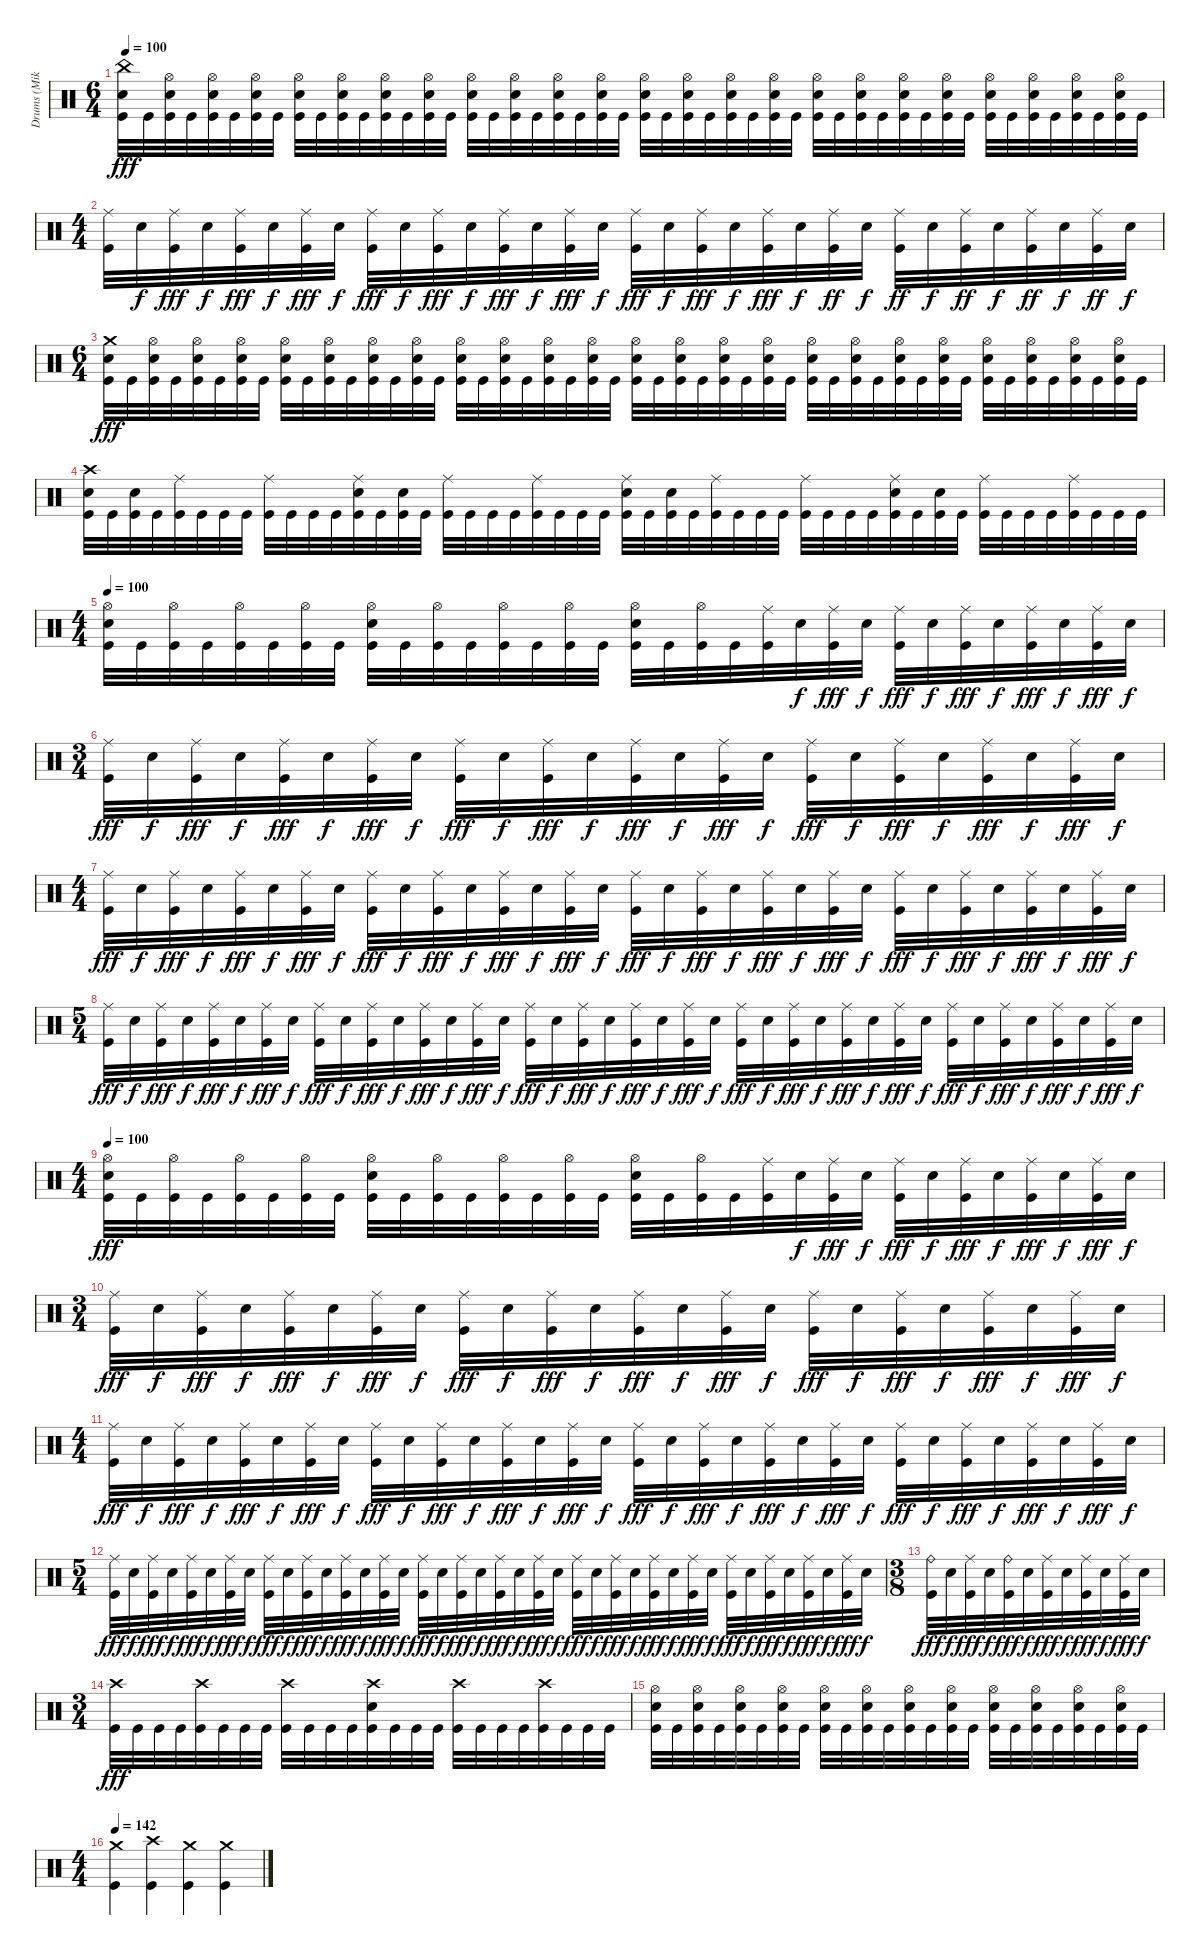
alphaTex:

\track ("Drums (Mike)" "Drums (Mik") {instrument percussion}
\staff {score}
\articulation defaults
\ts (6 4)
\tempo 100
\clef neutral
\ks c
("China (hit)" "Electric Snare (hit)" "Kick (hit)").32{dy fff} "Kick (hit)".32 ("Hi-Hat (open)" "Electric Snare (hit)" "Kick (hit)").32 "Kick (hit)".32 ("Hi-Hat (open)" "Electric Snare (hit)" "Kick (hit)").32 "Kick (hit)".32 ("Hi-Hat (open)" "Electric Snare (hit)" "Kick (hit)").32 "Kick (hit)".32 ("Hi-Hat (open)" "Electric Snare (hit)" "Kick (hit)").32 "Kick (hit)".32 ("Hi-Hat (open)" "Electric Snare (hit)" "Kick (hit)").32 "Kick (hit)".32 ("Hi-Hat (open)" "Electric Snare (hit)" "Kick (hit)").32 "Kick (hit)".32 ("Hi-Hat (open)" "Electric Snare (hit)" "Kick (hit)").32 "Kick (hit)".32 ("Hi-Hat (open)" "Electric Snare (hit)" "Kick (hit)").32 "Kick (hit)".32 ("Hi-Hat (open)" "Electric Snare (hit)" "Kick (hit)").32 "Kick (hit)".32 ("Hi-Hat (open)" "Electric Snare (hit)" "Kick (hit)").32 "Kick (hit)".32 ("Hi-Hat (open)" "Electric Snare (hit)" "Kick (hit)").32 "Kick (hit)".32 ("Hi-Hat (open)" "Electric Snare (hit)" "Kick (hit)").32 "Kick (hit)".32 ("Hi-Hat (open)" "Electric Snare (hit)" "Kick (hit)").32 "Kick (hit)".32 ("Hi-Hat (open)" "Electric Snare (hit)" "Kick (hit)").32 "Kick (hit)".32 ("Hi-Hat (open)" "Electric Snare (hit)" "Kick (hit)").32 "Kick (hit)".32 ("Hi-Hat (open)" "Electric Snare (hit)" "Kick (hit)").32 "Kick (hit)".32 ("Hi-Hat (open)" "Electric Snare (hit)" "Kick (hit)").32 "Kick (hit)".32 ("Hi-Hat (open)" "Electric Snare (hit)" "Kick (hit)").32 "Kick (hit)".32 ("Hi-Hat (open)" "Electric Snare (hit)" "Kick (hit)").32 "Kick (hit)".32 ("Hi-Hat (open)" "Electric Snare (hit)" "Kick (hit)").32 "Kick (hit)".32 ("Hi-Hat (open)" "Electric Snare (hit)" "Kick (hit)").32 "Kick (hit)".32 ("Hi-Hat (open)" "Electric Snare (hit)" "Kick (hit)").32 "Kick (hit)".32 ("Hi-Hat (open)" "Electric Snare (hit)" "Kick (hit)").32 "Kick (hit)".32 |
\ts (4 4)
("Ride (middle)" "Kick (hit)").32 "Electric Snare (hit)".32{dy f} ("Ride (middle)" "Kick (hit)").32{dy fff} "Electric Snare (hit)".32{dy f} ("Ride (middle)" "Kick (hit)").32{dy fff} "Electric Snare (hit)".32{dy f} ("Ride (middle)" "Kick (hit)").32{dy fff} "Electric Snare (hit)".32{dy f} ("Ride (middle)" "Kick (hit)").32{dy fff} "Electric Snare (hit)".32{dy f} ("Ride (middle)" "Kick (hit)").32{dy fff} "Electric Snare (hit)".32{dy f} ("Ride (middle)" "Kick (hit)").32{dy fff} "Electric Snare (hit)".32{dy f} ("Ride (middle)" "Kick (hit)").32{dy fff} "Electric Snare (hit)".32{dy f} ("Ride (middle)" "Kick (hit)").32{dy fff} "Electric Snare (hit)".32{dy f} ("Ride (middle)" "Kick (hit)").32{dy fff} "Electric Snare (hit)".32{dy f} ("Ride (middle)" "Kick (hit)").32{dy fff} "Electric Snare (hit)".32{dy f} ("Ride (middle)" "Kick (hit)").32{dy ff} "Electric Snare (hit)".32{dy f} ("Ride (middle)" "Kick (hit)").32{dy ff} "Electric Snare (hit)".32{dy f} ("Ride (middle)" "Kick (hit)").32{dy ff} "Electric Snare (hit)".32{dy f} ("Ride (middle)" "Kick (hit)").32{dy ff} "Electric Snare (hit)".32{dy f} ("Ride (middle)" "Kick (hit)").32{dy ff} "Electric Snare (hit)".32{dy f} |
\ts (6 4)
("Crash medium (hit)" "Electric Snare (hit)" "Kick (hit)").32{dy fff} "Kick (hit)".32 ("Hi-Hat (open)" "Electric Snare (hit)" "Kick (hit)").32 "Kick (hit)".32 ("Hi-Hat (open)" "Electric Snare (hit)" "Kick (hit)").32 "Kick (hit)".32 ("Hi-Hat (open)" "Electric Snare (hit)" "Kick (hit)").32 "Kick (hit)".32 ("Hi-Hat (open)" "Electric Snare (hit)" "Kick (hit)").32 "Kick (hit)".32 ("Hi-Hat (open)" "Electric Snare (hit)" "Kick (hit)").32 "Kick (hit)".32 ("Hi-Hat (open)" "Electric Snare (hit)" "Kick (hit)").32 "Kick (hit)".32 ("Hi-Hat (open)" "Electric Snare (hit)" "Kick (hit)").32 "Kick (hit)".32 ("Hi-Hat (open)" "Electric Snare (hit)" "Kick (hit)").32 "Kick (hit)".32 ("Hi-Hat (open)" "Electric Snare (hit)" "Kick (hit)").32 "Kick (hit)".32 ("Hi-Hat (open)" "Electric Snare (hit)" "Kick (hit)").32 "Kick (hit)".32 ("Hi-Hat (open)" "Electric Snare (hit)" "Kick (hit)").32 "Kick (hit)".32 ("Hi-Hat (open)" "Electric Snare (hit)" "Kick (hit)").32 "Kick (hit)".32 ("Hi-Hat (open)" "Electric Snare (hit)" "Kick (hit)").32 "Kick (hit)".32 ("Hi-Hat (open)" "Electric Snare (hit)" "Kick (hit)").32 "Kick (hit)".32 ("Hi-Hat (open)" "Electric Snare (hit)" "Kick (hit)").32 "Kick (hit)".32 ("Hi-Hat (open)" "Electric Snare (hit)" "Kick (hit)").32 "Kick (hit)".32 ("Hi-Hat (open)" "Electric Snare (hit)" "Kick (hit)").32 "Kick (hit)".32 ("Hi-Hat (open)" "Electric Snare (hit)" "Kick (hit)").32 "Kick (hit)".32 ("Hi-Hat (open)" "Electric Snare (hit)" "Kick (hit)").32 "Kick (hit)".32 ("Hi-Hat (open)" "Electric Snare (hit)" "Kick (hit)").32 "Kick (hit)".32 ("Hi-Hat (open)" "Electric Snare (hit)" "Kick (hit)").32 "Kick (hit)".32 ("Hi-Hat (open)" "Electric Snare (hit)" "Kick (hit)").32 "Kick (hit)".32 ("Hi-Hat (open)" "Electric Snare (hit)" "Kick (hit)").32 "Kick (hit)".32 |
("Crash high (hit)" "Electric Snare (hit)" "Kick (hit)").32 "Kick (hit)".32 ("Electric Snare (hit)" "Kick (hit)").32 "Kick (hit)".32 ("Ride (middle)" "Kick (hit)").32 "Kick (hit)".32 "Kick (hit)".32 "Kick (hit)".32 ("Ride (middle)" "Kick (hit)").32 "Kick (hit)".32 "Kick (hit)".32 "Kick (hit)".32 ("Ride (middle)" "Electric Snare (hit)" "Kick (hit)").32 "Kick (hit)".32 ("Electric Snare (hit)" "Kick (hit)").32 "Kick (hit)".32 ("Ride (middle)" "Kick (hit)").32 "Kick (hit)".32 "Kick (hit)".32 "Kick (hit)".32 ("Ride (middle)" "Kick (hit)").32 "Kick (hit)".32 "Kick (hit)".32 "Kick (hit)".32 ("Ride (middle)" "Electric Snare (hit)" "Kick (hit)").32 "Kick (hit)".32 ("Electric Snare (hit)" "Kick (hit)").32 "Kick (hit)".32 ("Ride (middle)" "Kick (hit)").32 "Kick (hit)".32 "Kick (hit)".32 "Kick (hit)".32 ("Ride (middle)" "Kick (hit)").32 "Kick (hit)".32 "Kick (hit)".32 "Kick (hit)".32 ("Ride (middle)" "Electric Snare (hit)" "Kick (hit)").32 "Kick (hit)".32 ("Electric Snare (hit)" "Kick (hit)").32 "Kick (hit)".32 ("Ride (middle)" "Kick (hit)").32 "Kick (hit)".32 "Kick (hit)".32 "Kick (hit)".32 ("Ride (middle)" "Kick (hit)").32 "Kick (hit)".32 "Kick (hit)".32 "Kick (hit)".32 |
\ts (4 4)
\tempo 100
("Hi-Hat (open)" "Electric Snare (hit)" "Kick (hit)").32 "Kick (hit)".32 ("Hi-Hat (open)" "Kick (hit)").32 "Kick (hit)".32 ("Hi-Hat (open)" "Kick (hit)").32 "Kick (hit)".32 ("Hi-Hat (open)" "Kick (hit)").32 "Kick (hit)".32 ("Hi-Hat (open)" "Electric Snare (hit)" "Kick (hit)").32 "Kick (hit)".32 ("Hi-Hat (open)" "Kick (hit)").32 "Kick (hit)".32 ("Hi-Hat (open)" "Kick (hit)").32 "Kick (hit)".32 ("Hi-Hat (open)" "Kick (hit)").32 "Kick (hit)".32 ("Hi-Hat (open)" "Electric Snare (hit)" "Kick (hit)").32 "Kick (hit)".32 ("Hi-Hat (open)" "Kick (hit)").32 "Kick (hit)".32 ("Ride (middle)" "Kick (hit)").32 "Electric Snare (hit)".32{dy f} ("Ride (middle)" "Kick (hit)").32{dy fff} "Electric Snare (hit)".32{dy f} ("Ride (middle)" "Kick (hit)").32{dy fff} "Electric Snare (hit)".32{dy f} ("Ride (middle)" "Kick (hit)").32{dy fff} "Electric Snare (hit)".32{dy f} ("Ride (middle)" "Kick (hit)").32{dy fff} "Electric Snare (hit)".32{dy f} ("Ride (middle)" "Kick (hit)").32{dy fff} "Electric Snare (hit)".32{dy f} |
\ts (3 4)
("Ride (middle)" "Kick (hit)").32{dy fff} "Electric Snare (hit)".32{dy f} ("Ride (middle)" "Kick (hit)").32{dy fff} "Electric Snare (hit)".32{dy f} ("Ride (middle)" "Kick (hit)").32{dy fff} "Electric Snare (hit)".32{dy f} ("Ride (middle)" "Kick (hit)").32{dy fff} "Electric Snare (hit)".32{dy f} ("Ride (middle)" "Kick (hit)").32{dy fff} "Electric Snare (hit)".32{dy f} ("Ride (middle)" "Kick (hit)").32{dy fff} "Electric Snare (hit)".32{dy f} ("Ride (middle)" "Kick (hit)").32{dy fff} "Electric Snare (hit)".32{dy f} ("Ride (middle)" "Kick (hit)").32{dy fff} "Electric Snare (hit)".32{dy f} ("Ride (middle)" "Kick (hit)").32{dy fff} "Electric Snare (hit)".32{dy f} ("Ride (middle)" "Kick (hit)").32{dy fff} "Electric Snare (hit)".32{dy f} ("Ride (middle)" "Kick (hit)").32{dy fff} "Electric Snare (hit)".32{dy f} ("Ride (middle)" "Kick (hit)").32{dy fff} "Electric Snare (hit)".32{dy f} |
\ts (4 4)
("Ride (middle)" "Kick (hit)").32{dy fff} "Electric Snare (hit)".32{dy f} ("Ride (middle)" "Kick (hit)").32{dy fff} "Electric Snare (hit)".32{dy f} ("Ride (middle)" "Kick (hit)").32{dy fff} "Electric Snare (hit)".32{dy f} ("Ride (middle)" "Kick (hit)").32{dy fff} "Electric Snare (hit)".32{dy f} ("Ride (middle)" "Kick (hit)").32{dy fff} "Electric Snare (hit)".32{dy f} ("Ride (middle)" "Kick (hit)").32{dy fff} "Electric Snare (hit)".32{dy f} ("Ride (middle)" "Kick (hit)").32{dy fff} "Electric Snare (hit)".32{dy f} ("Ride (middle)" "Kick (hit)").32{dy fff} "Electric Snare (hit)".32{dy f} ("Ride (middle)" "Kick (hit)").32{dy fff} "Electric Snare (hit)".32{dy f} ("Ride (middle)" "Kick (hit)").32{dy fff} "Electric Snare (hit)".32{dy f} ("Ride (middle)" "Kick (hit)").32{dy fff} "Electric Snare (hit)".32{dy f} ("Ride (middle)" "Kick (hit)").32{dy fff} "Electric Snare (hit)".32{dy f} ("Ride (middle)" "Kick (hit)").32{dy fff} "Electric Snare (hit)".32{dy f} ("Ride (middle)" "Kick (hit)").32{dy fff} "Electric Snare (hit)".32{dy f} ("Ride (middle)" "Kick (hit)").32{dy fff} "Electric Snare (hit)".32{dy f} ("Ride (middle)" "Kick (hit)").32{dy fff} "Electric Snare (hit)".32{dy f} |
\ts (5 4)
("Ride (middle)" "Kick (hit)").32{dy fff} "Electric Snare (hit)".32{dy f} ("Ride (middle)" "Kick (hit)").32{dy fff} "Electric Snare (hit)".32{dy f} ("Ride (middle)" "Kick (hit)").32{dy fff} "Electric Snare (hit)".32{dy f} ("Ride (middle)" "Kick (hit)").32{dy fff} "Electric Snare (hit)".32{dy f} ("Ride (middle)" "Kick (hit)").32{dy fff} "Electric Snare (hit)".32{dy f} ("Ride (middle)" "Kick (hit)").32{dy fff} "Electric Snare (hit)".32{dy f} ("Ride (middle)" "Kick (hit)").32{dy fff} "Electric Snare (hit)".32{dy f} ("Ride (middle)" "Kick (hit)").32{dy fff} "Electric Snare (hit)".32{dy f} ("Ride (middle)" "Kick (hit)").32{dy fff} "Electric Snare (hit)".32{dy f} ("Ride (middle)" "Kick (hit)").32{dy fff} "Electric Snare (hit)".32{dy f} ("Ride (middle)" "Kick (hit)").32{dy fff} "Electric Snare (hit)".32{dy f} ("Ride (middle)" "Kick (hit)").32{dy fff} "Electric Snare (hit)".32{dy f} ("Ride (middle)" "Kick (hit)").32{dy fff} "Electric Snare (hit)".32{dy f} ("Ride (middle)" "Kick (hit)").32{dy fff} "Electric Snare (hit)".32{dy f} ("Ride (middle)" "Kick (hit)").32{dy fff} "Electric Snare (hit)".32{dy f} ("Ride (middle)" "Kick (hit)").32{dy fff} "Electric Snare (hit)".32{dy f} ("Ride (middle)" "Kick (hit)").32{dy fff} "Electric Snare (hit)".32{dy f} ("Ride (middle)" "Kick (hit)").32{dy fff} "Electric Snare (hit)".32{dy f} ("Ride (middle)" "Kick (hit)").32{dy fff} "Electric Snare (hit)".32{dy f} ("Ride (middle)" "Kick (hit)").32{dy fff} "Electric Snare (hit)".32{dy f} |
\ts (4 4)
\tempo 100
("Hi-Hat (open)" "Electric Snare (hit)" "Kick (hit)").32{dy fff} "Kick (hit)".32 ("Hi-Hat (open)" "Kick (hit)").32 "Kick (hit)".32 ("Hi-Hat (open)" "Kick (hit)").32 "Kick (hit)".32 ("Hi-Hat (open)" "Kick (hit)").32 "Kick (hit)".32 ("Hi-Hat (open)" "Electric Snare (hit)" "Kick (hit)").32 "Kick (hit)".32 ("Hi-Hat (open)" "Kick (hit)").32 "Kick (hit)".32 ("Hi-Hat (open)" "Kick (hit)").32 "Kick (hit)".32 ("Hi-Hat (open)" "Kick (hit)").32 "Kick (hit)".32 ("Hi-Hat (open)" "Electric Snare (hit)" "Kick (hit)").32 "Kick (hit)".32 ("Hi-Hat (open)" "Kick (hit)").32 "Kick (hit)".32 ("Ride (middle)" "Kick (hit)").32 "Electric Snare (hit)".32{dy f} ("Ride (middle)" "Kick (hit)").32{dy fff} "Electric Snare (hit)".32{dy f} ("Ride (middle)" "Kick (hit)").32{dy fff} "Electric Snare (hit)".32{dy f} ("Ride (middle)" "Kick (hit)").32{dy fff} "Electric Snare (hit)".32{dy f} ("Ride (middle)" "Kick (hit)").32{dy fff} "Electric Snare (hit)".32{dy f} ("Ride (middle)" "Kick (hit)").32{dy fff} "Electric Snare (hit)".32{dy f} |
\ts (3 4)
("Ride (middle)" "Kick (hit)").32{dy fff} "Electric Snare (hit)".32{dy f} ("Ride (middle)" "Kick (hit)").32{dy fff} "Electric Snare (hit)".32{dy f} ("Ride (middle)" "Kick (hit)").32{dy fff} "Electric Snare (hit)".32{dy f} ("Ride (middle)" "Kick (hit)").32{dy fff} "Electric Snare (hit)".32{dy f} ("Ride (middle)" "Kick (hit)").32{dy fff} "Electric Snare (hit)".32{dy f} ("Ride (middle)" "Kick (hit)").32{dy fff} "Electric Snare (hit)".32{dy f} ("Ride (middle)" "Kick (hit)").32{dy fff} "Electric Snare (hit)".32{dy f} ("Ride (middle)" "Kick (hit)").32{dy fff} "Electric Snare (hit)".32{dy f} ("Ride (middle)" "Kick (hit)").32{dy fff} "Electric Snare (hit)".32{dy f} ("Ride (middle)" "Kick (hit)").32{dy fff} "Electric Snare (hit)".32{dy f} ("Ride (middle)" "Kick (hit)").32{dy fff} "Electric Snare (hit)".32{dy f} ("Ride (middle)" "Kick (hit)").32{dy fff} "Electric Snare (hit)".32{dy f} |
\ts (4 4)
("Ride (middle)" "Kick (hit)").32{dy fff} "Electric Snare (hit)".32{dy f} ("Ride (middle)" "Kick (hit)").32{dy fff} "Electric Snare (hit)".32{dy f} ("Ride (middle)" "Kick (hit)").32{dy fff} "Electric Snare (hit)".32{dy f} ("Ride (middle)" "Kick (hit)").32{dy fff} "Electric Snare (hit)".32{dy f} ("Ride (middle)" "Kick (hit)").32{dy fff} "Electric Snare (hit)".32{dy f} ("Ride (middle)" "Kick (hit)").32{dy fff} "Electric Snare (hit)".32{dy f} ("Ride (middle)" "Kick (hit)").32{dy fff} "Electric Snare (hit)".32{dy f} ("Ride (middle)" "Kick (hit)").32{dy fff} "Electric Snare (hit)".32{dy f} ("Ride (middle)" "Kick (hit)").32{dy fff} "Electric Snare (hit)".32{dy f} ("Ride (middle)" "Kick (hit)").32{dy fff} "Electric Snare (hit)".32{dy f} ("Ride (middle)" "Kick (hit)").32{dy fff} "Electric Snare (hit)".32{dy f} ("Ride (middle)" "Kick (hit)").32{dy fff} "Electric Snare (hit)".32{dy f} ("Ride (middle)" "Kick (hit)").32{dy fff} "Electric Snare (hit)".32{dy f} ("Ride (middle)" "Kick (hit)").32{dy fff} "Electric Snare (hit)".32{dy f} ("Ride (middle)" "Kick (hit)").32{dy fff} "Electric Snare (hit)".32{dy f} ("Ride (middle)" "Kick (hit)").32{dy fff} "Electric Snare (hit)".32{dy f} |
\ts (5 4)
("Ride (middle)" "Kick (hit)").32{dy fff} "Electric Snare (hit)".32{dy f} ("Ride (middle)" "Kick (hit)").32{dy fff} "Electric Snare (hit)".32{dy f} ("Ride (middle)" "Kick (hit)").32{dy fff} "Electric Snare (hit)".32{dy f} ("Ride (middle)" "Kick (hit)").32{dy fff} "Electric Snare (hit)".32{dy f} ("Ride (middle)" "Kick (hit)").32{dy fff} "Electric Snare (hit)".32{dy f} ("Ride (middle)" "Kick (hit)").32{dy fff} "Electric Snare (hit)".32{dy f} ("Ride (middle)" "Kick (hit)").32{dy fff} "Electric Snare (hit)".32{dy f} ("Ride (middle)" "Kick (hit)").32{dy fff} "Electric Snare (hit)".32{dy f} ("Ride (middle)" "Kick (hit)").32{dy fff} "Electric Snare (hit)".32{dy f} ("Ride (middle)" "Kick (hit)").32{dy fff} "Electric Snare (hit)".32{dy f} ("Ride (middle)" "Kick (hit)").32{dy fff} "Electric Snare (hit)".32{dy f} ("Ride (middle)" "Kick (hit)").32{dy fff} "Electric Snare (hit)".32{dy f} ("Ride (middle)" "Kick (hit)").32{dy fff} "Electric Snare (hit)".32{dy f} ("Ride (middle)" "Kick (hit)").32{dy fff} "Electric Snare (hit)".32{dy f} ("Ride (middle)" "Kick (hit)").32{dy fff} "Electric Snare (hit)".32{dy f} ("Ride (middle)" "Kick (hit)").32{dy fff} "Electric Snare (hit)".32{dy f} ("Ride (middle)" "Kick (hit)").32{dy fff} "Electric Snare (hit)".32{dy f} ("Ride (middle)" "Kick (hit)").32{dy fff} "Electric Snare (hit)".32{dy f} ("Ride (middle)" "Kick (hit)").32{dy fff} "Electric Snare (hit)".32{dy f} ("Ride (middle)" "Kick (hit)").32{dy fff} "Electric Snare (hit)".32{dy f} |
\ts (3 8)
("Ride (bell)" "Kick (hit)").32{dy fff} "Electric Snare (hit)".32{dy f} ("Ride (middle)" "Kick (hit)").32{dy fff} "Electric Snare (hit)".32{dy f} ("Ride (bell)" "Kick (hit)").32{dy fff} "Electric Snare (hit)".32{dy f} ("Ride (middle)" "Kick (hit)").32{dy fff} "Electric Snare (hit)".32{dy f} ("Ride (middle)" "Kick (hit)").32{dy fff} "Electric Snare (hit)".32{dy f} ("Ride (middle)" "Kick (hit)").32{dy fff} "Electric Snare (hit)".32{dy f} |
\ts (3 4)
("Crash high (hit)" "Kick (hit)").32{dy fff} "Kick (hit)".32 "Kick (hit)".32 "Kick (hit)".32 ("Crash high (hit)" "Kick (hit)").32 "Kick (hit)".32 "Kick (hit)".32 "Kick (hit)".32 ("Crash high (hit)" "Kick (hit)").32 "Kick (hit)".32 "Kick (hit)".32 "Kick (hit)".32 ("Crash high (hit)" "Electric Snare (hit)" "Kick (hit)").32 "Kick (hit)".32 "Kick (hit)".32 "Kick (hit)".32 ("Crash high (hit)" "Kick (hit)").32 "Kick (hit)".32 "Kick (hit)".32 "Kick (hit)".32 ("Crash high (hit)" "Kick (hit)").32 "Kick (hit)".32 "Kick (hit)".32 "Kick (hit)".32 |
("Hi-Hat (open)" "Electric Snare (hit)" "Kick (hit)").32 "Kick (hit)".32 ("Hi-Hat (open)" "Electric Snare (hit)" "Kick (hit)").32 "Kick (hit)".32 ("Hi-Hat (open)" "Electric Snare (hit)" "Kick (hit)").32 "Kick (hit)".32 ("Hi-Hat (open)" "Electric Snare (hit)" "Kick (hit)").32 "Kick (hit)".32 ("Hi-Hat (open)" "Electric Snare (hit)" "Kick (hit)").32 "Kick (hit)".32 ("Hi-Hat (open)" "Electric Snare (hit)" "Kick (hit)").32 "Kick (hit)".32 ("Hi-Hat (open)" "Electric Snare (hit)" "Kick (hit)").32 "Kick (hit)".32 ("Hi-Hat (open)" "Electric Snare (hit)" "Kick (hit)").32 "Kick (hit)".32 ("Hi-Hat (open)" "Electric Snare (hit)" "Kick (hit)").32 "Kick (hit)".32 ("Hi-Hat (open)" "Electric Snare (hit)" "Kick (hit)").32 "Kick (hit)".32 ("Hi-Hat (open)" "Electric Snare (hit)" "Kick (hit)").32 "Kick (hit)".32 ("Hi-Hat (open)" "Electric Snare (hit)" "Kick (hit)").32 "Kick (hit)".32 |
\ts (4 4)
\tempo 142
("Crash medium (hit)" "Kick (hit)").4 ("Crash high (hit)" "Kick (hit)").4 ("Crash medium (hit)" "Kick (hit)").4 ("Crash medium (hit)" "Kick (hit)").4
